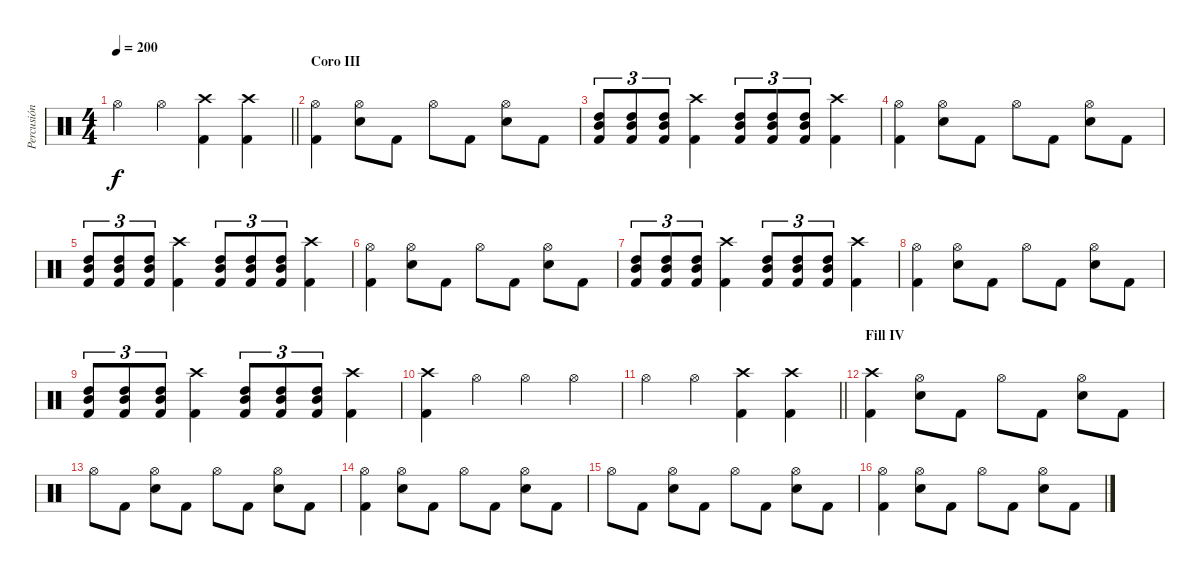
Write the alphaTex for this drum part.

\track ("Percusión" "Percusión") {instrument percussion}
\staff {score}
\articulation defaults
\ts (4 4)
\tempo 200
\clef neutral
\barLineRight lightlight
\ks c "Hi-Hat (open)".4{dy f} "Hi-Hat (open)".4
("Crash high (hit)" "Kick (hit) 2").4 ("Crash high (hit)" "Kick (hit) 2").4 |
\section ("" "Coro III")
("Hi-Hat (open)" "Kick (hit) 2").4 ("Hi-Hat (open)" "Electric Snare (hit)").8 "Kick (hit) 2".8 "Hi-Hat (open)".8 "Kick (hit) 2".8 ("Hi-Hat (open)" "Electric Snare (hit)").8 "Kick (hit) 2".8 |
("High Tom (hit)" "Mid Tom (hit)" "Kick (hit) 2").8{tu (3 2)} ("High Tom (hit)" "Mid Tom (hit)" "Kick (hit) 2").8{tu (3 2)} ("High Tom (hit)" "Mid Tom (hit)" "Kick (hit) 2").8{tu (3 2)} ("Crash high (hit)" "Kick (hit) 2").4 ("High Tom (hit)" "Mid Tom (hit)" "Kick (hit) 2").8{tu (3 2)} ("High Tom (hit)" "Mid Tom (hit)" "Kick (hit) 2").8{tu (3 2)} ("High Tom (hit)" "Mid Tom (hit)" "Kick (hit) 2").8{tu (3 2)} ("Crash high (hit)" "Kick (hit) 2").4 |
("Hi-Hat (open)" "Kick (hit) 2").4 ("Hi-Hat (open)" "Electric Snare (hit)").8 "Kick (hit) 2".8 "Hi-Hat (open)".8 "Kick (hit) 2".8 ("Hi-Hat (open)" "Electric Snare (hit)").8 "Kick (hit) 2".8 |
("High Tom (hit)" "Mid Tom (hit)" "Kick (hit) 2").8{tu (3 2)} ("High Tom (hit)" "Mid Tom (hit)" "Kick (hit) 2").8{tu (3 2)} ("High Tom (hit)" "Mid Tom (hit)" "Kick (hit) 2").8{tu (3 2)} ("Crash high (hit)" "Kick (hit) 2").4 ("High Tom (hit)" "Mid Tom (hit)" "Kick (hit) 2").8{tu (3 2)} ("High Tom (hit)" "Mid Tom (hit)" "Kick (hit) 2").8{tu (3 2)} ("High Tom (hit)" "Mid Tom (hit)" "Kick (hit) 2").8{tu (3 2)} ("Crash high (hit)" "Kick (hit) 2").4 |
("Hi-Hat (open)" "Kick (hit) 2").4 ("Hi-Hat (open)" "Electric Snare (hit)").8 "Kick (hit) 2".8 "Hi-Hat (open)".8 "Kick (hit) 2".8 ("Hi-Hat (open)" "Electric Snare (hit)").8 "Kick (hit) 2".8 |
("High Tom (hit)" "Mid Tom (hit)" "Kick (hit) 2").8{tu (3 2)} ("High Tom (hit)" "Mid Tom (hit)" "Kick (hit) 2").8{tu (3 2)} ("High Tom (hit)" "Mid Tom (hit)" "Kick (hit) 2").8{tu (3 2)} ("Crash high (hit)" "Kick (hit) 2").4 ("High Tom (hit)" "Mid Tom (hit)" "Kick (hit) 2").8{tu (3 2)} ("High Tom (hit)" "Mid Tom (hit)" "Kick (hit) 2").8{tu (3 2)} ("High Tom (hit)" "Mid Tom (hit)" "Kick (hit) 2").8{tu (3 2)} ("Crash high (hit)" "Kick (hit) 2").4 |
("Hi-Hat (open)" "Kick (hit) 2").4 ("Hi-Hat (open)" "Electric Snare (hit)").8 "Kick (hit) 2".8 "Hi-Hat (open)".8 "Kick (hit) 2".8 ("Hi-Hat (open)" "Electric Snare (hit)").8 "Kick (hit) 2".8 |
("High Tom (hit)" "Mid Tom (hit)" "Kick (hit) 2").8{tu (3 2)} ("High Tom (hit)" "Mid Tom (hit)" "Kick (hit) 2").8{tu (3 2)} ("High Tom (hit)" "Mid Tom (hit)" "Kick (hit) 2").8{tu (3 2)} ("Crash high (hit)" "Kick (hit) 2").4 ("High Tom (hit)" "Mid Tom (hit)" "Kick (hit) 2").8{tu (3 2)} ("High Tom (hit)" "Mid Tom (hit)" "Kick (hit) 2").8{tu (3 2)} ("High Tom (hit)" "Mid Tom (hit)" "Kick (hit) 2").8{tu (3 2)} ("Crash high (hit)" "Kick (hit) 2").4 |
("Crash high (hit)" "Kick (hit) 2").4 "Hi-Hat (open)".4 "Hi-Hat (open)".4 "Hi-Hat (open)".4 |
\barLineRight lightlight "Hi-Hat (open)".4 "Hi-Hat (open)".4
("Crash high (hit)" "Kick (hit) 2").4 ("Crash high (hit)" "Kick (hit) 2").4 |
\section ("" "Fill IV")
("Crash high (hit)" "Kick (hit) 2").4 ("Hi-Hat (open)" "Electric Snare (hit)").8 "Kick (hit) 2".8 "Hi-Hat (open)".8 "Kick (hit) 2".8 ("Hi-Hat (open)" "Electric Snare (hit)").8 "Kick (hit) 2".8 |
"Hi-Hat (open)".8 "Kick (hit) 2".8 ("Hi-Hat (open)" "Electric Snare (hit)").8 "Kick (hit) 2".8 "Hi-Hat (open)".8 "Kick (hit) 2".8 ("Hi-Hat (open)" "Electric Snare (hit)").8 "Kick (hit) 2".8 |
("Hi-Hat (open)" "Kick (hit) 2").4 ("Hi-Hat (open)" "Electric Snare (hit)").8 "Kick (hit) 2".8 "Hi-Hat (open)".8 "Kick (hit) 2".8 ("Hi-Hat (open)" "Electric Snare (hit)").8 "Kick (hit) 2".8 |
"Hi-Hat (open)".8 "Kick (hit) 2".8 ("Hi-Hat (open)" "Electric Snare (hit)").8 "Kick (hit) 2".8 "Hi-Hat (open)".8 "Kick (hit) 2".8 ("Hi-Hat (open)" "Electric Snare (hit)").8 "Kick (hit) 2".8 |
("Hi-Hat (open)" "Kick (hit) 2").4 ("Hi-Hat (open)" "Electric Snare (hit)").8 "Kick (hit) 2".8 "Hi-Hat (open)".8 "Kick (hit) 2".8 ("Hi-Hat (open)" "Electric Snare (hit)").8 "Kick (hit) 2".8
